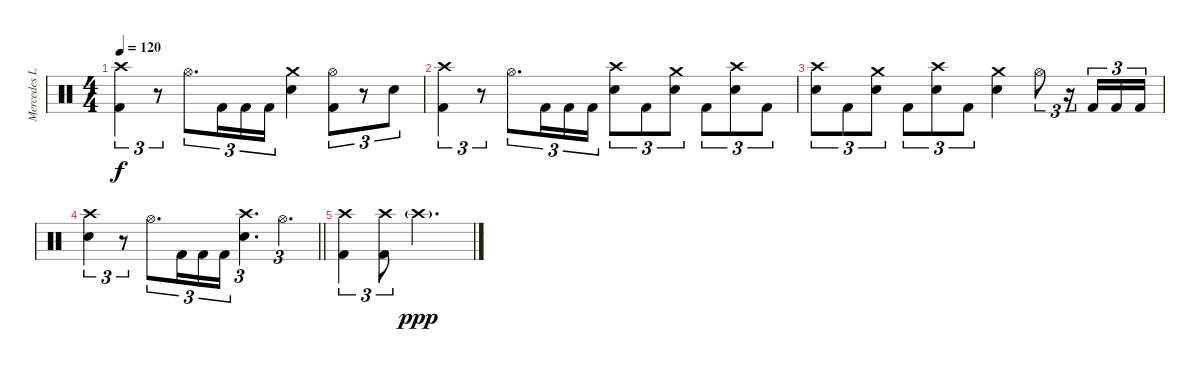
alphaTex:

\track ("Mercedes Lander" "Mercedes L") {instrument percussion}
\staff {score}
\articulation defaults
\ts (4 4)
\tempo 120
\clef neutral
\ks c
("Crash high (hit)" "Kick (hit) 2").4{tu (3 2) dy f} r.8{tu (3 2)} "Hi-Hat (open)".8{d tu (3 2)} "Kick (hit) 2".16{tu (3 2)} "Kick (hit) 2".16{tu (3 2)} "Kick (hit) 2".16{tu (3 2)} ("Crash medium (hit)" "Snare (hit) 2").4 ("Hi-Hat (open)" "Kick (hit) 2").8{tu (3 2)} r.8{tu (3 2)} "Snare (hit) 2".8{tu (3 2)} |
("Crash high (hit)" "Kick (hit) 2").4{tu (3 2)} r.8{tu (3 2)} "Hi-Hat (open)".8{d tu (3 2)} "Kick (hit) 2".16{tu (3 2)} "Kick (hit) 2".16{tu (3 2)} "Kick (hit) 2".16{tu (3 2)} ("Crash high (hit)" "Snare (hit) 2").8{tu (3 2)} "Kick (hit) 2".8{tu (3 2)} ("Crash medium (hit)" "Snare (hit) 2").8{tu (3 2)} "Kick (hit) 2".8{tu (3 2)} ("Crash high (hit)" "Snare (hit) 2").8{tu (3 2)} "Kick (hit) 2".8{tu (3 2)} |
("Crash high (hit)" "Snare (hit) 2").8{tu (3 2)} "Kick (hit) 2".8{tu (3 2)} ("Crash medium (hit)" "Snare (hit) 2").8{tu (3 2)} "Kick (hit) 2".8{tu (3 2)} ("Crash high (hit)" "Snare (hit) 2").8{tu (3 2)} "Kick (hit) 2".8{tu (3 2)} ("Crash medium (hit)" "Snare (hit) 2").4 "Hi-Hat (open)".8{tu (3 2)} r.16{tu (3 2)} "Kick (hit) 2".16{tu (3 2)} "Kick (hit) 2".16{tu (3 2)} "Kick (hit) 2".16{tu (3 2)} |
\barLineRight lightlight
("Crash high (hit)" "Snare (hit) 2").4{tu (3 2)} r.8{tu (3 2)} "Hi-Hat (open)".8{d tu (3 2)} "Kick (hit) 2".16{tu (3 2)} "Kick (hit) 2".16{tu (3 2)} "Kick (hit) 2".16{tu (3 2)} ("Crash high (hit)" "Snare (hit) 2").4{d tu (3 2)} "Hi-Hat (open)".4{d tu (3 2)} |
("Crash high (hit)" "Kick (hit) 2").4{tu (3 2)} ("Crash high (hit)" "Kick (hit) 2").8{tu (3 2)} "Crash high (hit)"{g}.2{d dy ppp}
